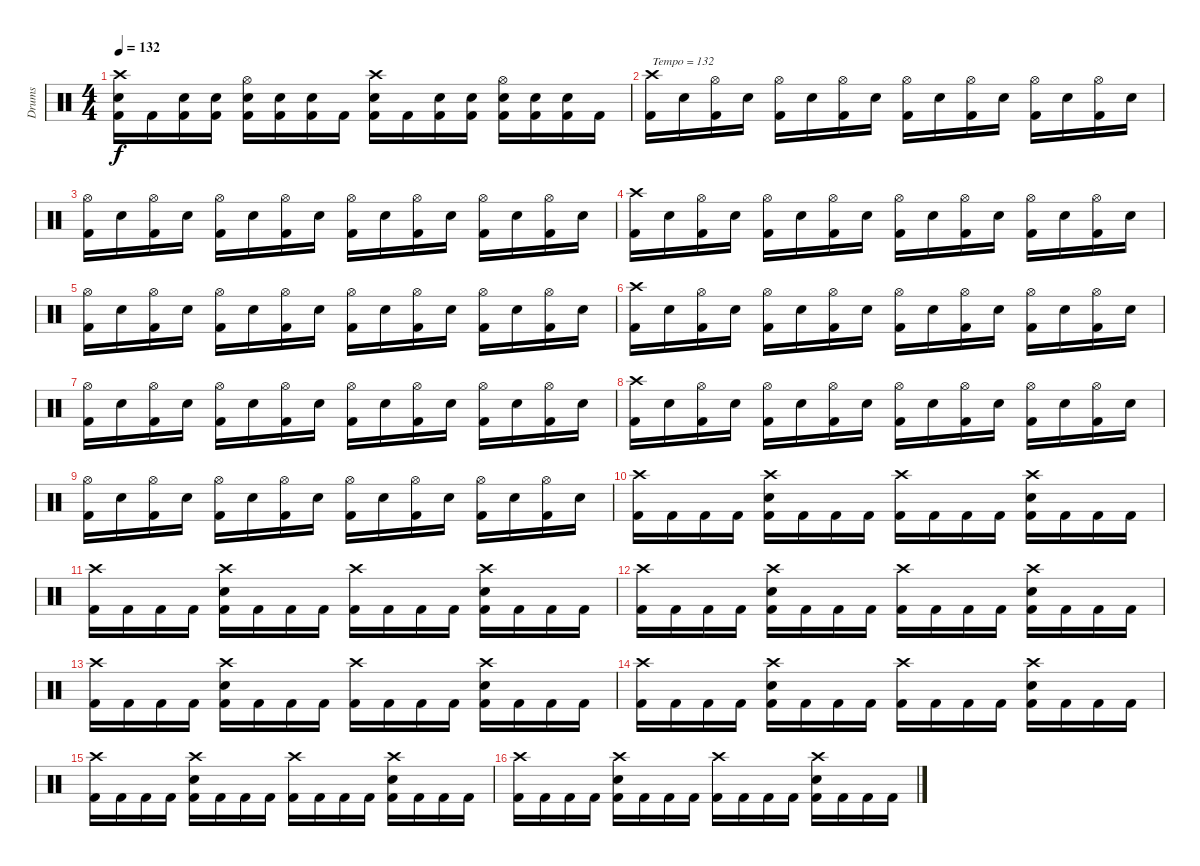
\track ("Drums" "Drums") {instrument percussion}
\staff {score}
\articulation defaults
\ts (4 4)
\tempo 132
\clef neutral
\ks c
("Kick (hit) 2" "Snare (hit) 2" "Crash high (hit)").16{dy f} "Kick (hit) 2".16 ("Kick (hit) 2" "Snare (hit) 2").16 ("Kick (hit) 2" "Snare (hit) 2").16 ("Kick (hit) 2" "Snare (hit) 2" "Hi-Hat (open)").16 ("Kick (hit) 2" "Snare (hit) 2").16 ("Kick (hit) 2" "Snare (hit) 2").16 "Kick (hit) 2".16 ("Kick (hit) 2" "Snare (hit) 2" "Crash high (hit)").16 "Kick (hit) 2".16 ("Kick (hit) 2" "Snare (hit) 2").16 ("Kick (hit) 2" "Snare (hit) 2").16 ("Kick (hit) 2" "Snare (hit) 2" "Hi-Hat (open)").16 ("Kick (hit) 2" "Snare (hit) 2").16 ("Kick (hit) 2" "Snare (hit) 2").16 "Kick (hit) 2".16 |
("Kick (hit) 2" "Crash high (hit)").16{txt "Tempo = 132"} "Snare (hit) 2".16 ("Kick (hit) 2" "Hi-Hat (open)").16 "Snare (hit) 2".16 ("Kick (hit) 2" "Hi-Hat (open)").16 "Snare (hit) 2".16 ("Kick (hit) 2" "Hi-Hat (open)").16 "Snare (hit) 2".16 ("Kick (hit) 2" "Hi-Hat (open)").16 "Snare (hit) 2".16 ("Kick (hit) 2" "Hi-Hat (open)").16 "Snare (hit) 2".16 ("Kick (hit) 2" "Hi-Hat (open)").16 "Snare (hit) 2".16 ("Kick (hit) 2" "Hi-Hat (open)").16 "Snare (hit) 2".16 |
("Kick (hit) 2" "Hi-Hat (open)").16 "Snare (hit) 2".16 ("Kick (hit) 2" "Hi-Hat (open)").16 "Snare (hit) 2".16 ("Kick (hit) 2" "Hi-Hat (open)").16 "Snare (hit) 2".16 ("Kick (hit) 2" "Hi-Hat (open)").16 "Snare (hit) 2".16 ("Kick (hit) 2" "Hi-Hat (open)").16 "Snare (hit) 2".16 ("Kick (hit) 2" "Hi-Hat (open)").16 "Snare (hit) 2".16 ("Kick (hit) 2" "Hi-Hat (open)").16 "Snare (hit) 2".16 ("Kick (hit) 2" "Hi-Hat (open)").16 "Snare (hit) 2".16 |
("Kick (hit) 2" "Crash high (hit)").16 "Snare (hit) 2".16 ("Kick (hit) 2" "Hi-Hat (open)").16 "Snare (hit) 2".16 ("Kick (hit) 2" "Hi-Hat (open)").16 "Snare (hit) 2".16 ("Kick (hit) 2" "Hi-Hat (open)").16 "Snare (hit) 2".16 ("Kick (hit) 2" "Hi-Hat (open)").16 "Snare (hit) 2".16 ("Kick (hit) 2" "Hi-Hat (open)").16 "Snare (hit) 2".16 ("Kick (hit) 2" "Hi-Hat (open)").16 "Snare (hit) 2".16 ("Kick (hit) 2" "Hi-Hat (open)").16 "Snare (hit) 2".16 |
("Kick (hit) 2" "Hi-Hat (open)").16 "Snare (hit) 2".16 ("Kick (hit) 2" "Hi-Hat (open)").16 "Snare (hit) 2".16 ("Kick (hit) 2" "Hi-Hat (open)").16 "Snare (hit) 2".16 ("Kick (hit) 2" "Hi-Hat (open)").16 "Snare (hit) 2".16 ("Kick (hit) 2" "Hi-Hat (open)").16 "Snare (hit) 2".16 ("Kick (hit) 2" "Hi-Hat (open)").16 "Snare (hit) 2".16 ("Kick (hit) 2" "Hi-Hat (open)").16 "Snare (hit) 2".16 ("Kick (hit) 2" "Hi-Hat (open)").16 "Snare (hit) 2".16 |
("Kick (hit) 2" "Crash high (hit)").16 "Snare (hit) 2".16 ("Kick (hit) 2" "Hi-Hat (open)").16 "Snare (hit) 2".16 ("Kick (hit) 2" "Hi-Hat (open)").16 "Snare (hit) 2".16 ("Kick (hit) 2" "Hi-Hat (open)").16 "Snare (hit) 2".16 ("Kick (hit) 2" "Hi-Hat (open)").16 "Snare (hit) 2".16 ("Kick (hit) 2" "Hi-Hat (open)").16 "Snare (hit) 2".16 ("Kick (hit) 2" "Hi-Hat (open)").16 "Snare (hit) 2".16 ("Kick (hit) 2" "Hi-Hat (open)").16 "Snare (hit) 2".16 |
("Kick (hit) 2" "Hi-Hat (open)").16 "Snare (hit) 2".16 ("Kick (hit) 2" "Hi-Hat (open)").16 "Snare (hit) 2".16 ("Kick (hit) 2" "Hi-Hat (open)").16 "Snare (hit) 2".16 ("Kick (hit) 2" "Hi-Hat (open)").16 "Snare (hit) 2".16 ("Kick (hit) 2" "Hi-Hat (open)").16 "Snare (hit) 2".16 ("Kick (hit) 2" "Hi-Hat (open)").16 "Snare (hit) 2".16 ("Kick (hit) 2" "Hi-Hat (open)").16 "Snare (hit) 2".16 ("Kick (hit) 2" "Hi-Hat (open)").16 "Snare (hit) 2".16 |
("Kick (hit) 2" "Crash high (hit)").16 "Snare (hit) 2".16 ("Kick (hit) 2" "Hi-Hat (open)").16 "Snare (hit) 2".16 ("Kick (hit) 2" "Hi-Hat (open)").16 "Snare (hit) 2".16 ("Kick (hit) 2" "Hi-Hat (open)").16 "Snare (hit) 2".16 ("Kick (hit) 2" "Hi-Hat (open)").16 "Snare (hit) 2".16 ("Kick (hit) 2" "Hi-Hat (open)").16 "Snare (hit) 2".16 ("Kick (hit) 2" "Hi-Hat (open)").16 "Snare (hit) 2".16 ("Kick (hit) 2" "Hi-Hat (open)").16 "Snare (hit) 2".16 |
("Kick (hit) 2" "Hi-Hat (open)").16 "Snare (hit) 2".16 ("Kick (hit) 2" "Hi-Hat (open)").16 "Snare (hit) 2".16 ("Kick (hit) 2" "Hi-Hat (open)").16 "Snare (hit) 2".16 ("Kick (hit) 2" "Hi-Hat (open)").16 "Snare (hit) 2".16 ("Kick (hit) 2" "Hi-Hat (open)").16 "Snare (hit) 2".16 ("Kick (hit) 2" "Hi-Hat (open)").16 "Snare (hit) 2".16 ("Kick (hit) 2" "Hi-Hat (open)").16 "Snare (hit) 2".16 ("Kick (hit) 2" "Hi-Hat (open)").16 "Snare (hit) 2".16 |
("Kick (hit) 2" "Crash high (hit)").16 "Kick (hit) 2".16 "Kick (hit) 2".16 "Kick (hit) 2".16 ("Kick (hit) 2" "Snare (hit) 2" "Crash high (hit)").16 "Kick (hit) 2".16 "Kick (hit) 2".16 "Kick (hit) 2".16 ("Kick (hit) 2" "Crash high (hit)").16 "Kick (hit) 2".16 "Kick (hit) 2".16 "Kick (hit) 2".16 ("Kick (hit) 2" "Snare (hit) 2" "Crash high (hit)").16 "Kick (hit) 2".16 "Kick (hit) 2".16 "Kick (hit) 2".16 |
("Kick (hit) 2" "Crash high (hit)").16 "Kick (hit) 2".16 "Kick (hit) 2".16 "Kick (hit) 2".16 ("Kick (hit) 2" "Snare (hit) 2" "Crash high (hit)").16 "Kick (hit) 2".16 "Kick (hit) 2".16 "Kick (hit) 2".16 ("Kick (hit) 2" "Crash high (hit)").16 "Kick (hit) 2".16 "Kick (hit) 2".16 "Kick (hit) 2".16 ("Kick (hit) 2" "Snare (hit) 2" "Crash high (hit)").16 "Kick (hit) 2".16 "Kick (hit) 2".16 "Kick (hit) 2".16 |
("Kick (hit) 2" "Crash high (hit)").16 "Kick (hit) 2".16 "Kick (hit) 2".16 "Kick (hit) 2".16 ("Kick (hit) 2" "Snare (hit) 2" "Crash high (hit)").16 "Kick (hit) 2".16 "Kick (hit) 2".16 "Kick (hit) 2".16 ("Kick (hit) 2" "Crash high (hit)").16 "Kick (hit) 2".16 "Kick (hit) 2".16 "Kick (hit) 2".16 ("Kick (hit) 2" "Snare (hit) 2" "Crash high (hit)").16 "Kick (hit) 2".16 "Kick (hit) 2".16 "Kick (hit) 2".16 |
("Kick (hit) 2" "Crash high (hit)").16 "Kick (hit) 2".16 "Kick (hit) 2".16 "Kick (hit) 2".16 ("Kick (hit) 2" "Snare (hit) 2" "Crash high (hit)").16 "Kick (hit) 2".16 "Kick (hit) 2".16 "Kick (hit) 2".16 ("Kick (hit) 2" "Crash high (hit)").16 "Kick (hit) 2".16 "Kick (hit) 2".16 "Kick (hit) 2".16 ("Kick (hit) 2" "Snare (hit) 2" "Crash high (hit)").16 "Kick (hit) 2".16 "Kick (hit) 2".16 "Kick (hit) 2".16 |
("Kick (hit) 2" "Crash high (hit)").16 "Kick (hit) 2".16 "Kick (hit) 2".16 "Kick (hit) 2".16 ("Kick (hit) 2" "Snare (hit) 2" "Crash high (hit)").16 "Kick (hit) 2".16 "Kick (hit) 2".16 "Kick (hit) 2".16 ("Kick (hit) 2" "Crash high (hit)").16 "Kick (hit) 2".16 "Kick (hit) 2".16 "Kick (hit) 2".16 ("Kick (hit) 2" "Snare (hit) 2" "Crash high (hit)").16 "Kick (hit) 2".16 "Kick (hit) 2".16 "Kick (hit) 2".16 |
("Kick (hit) 2" "Crash high (hit)").16 "Kick (hit) 2".16 "Kick (hit) 2".16 "Kick (hit) 2".16 ("Kick (hit) 2" "Snare (hit) 2" "Crash high (hit)").16 "Kick (hit) 2".16 "Kick (hit) 2".16 "Kick (hit) 2".16 ("Kick (hit) 2" "Crash high (hit)").16 "Kick (hit) 2".16 "Kick (hit) 2".16 "Kick (hit) 2".16 ("Kick (hit) 2" "Snare (hit) 2" "Crash high (hit)").16 "Kick (hit) 2".16 "Kick (hit) 2".16 "Kick (hit) 2".16 |
("Kick (hit) 2" "Crash high (hit)").16 "Kick (hit) 2".16 "Kick (hit) 2".16 "Kick (hit) 2".16 ("Kick (hit) 2" "Snare (hit) 2" "Crash high (hit)").16 "Kick (hit) 2".16 "Kick (hit) 2".16 "Kick (hit) 2".16 ("Kick (hit) 2" "Crash high (hit)").16 "Kick (hit) 2".16 "Kick (hit) 2".16 "Kick (hit) 2".16 ("Kick (hit) 2" "Snare (hit) 2" "Crash high (hit)").16 "Kick (hit) 2".16 "Kick (hit) 2".16 "Kick (hit) 2".16
